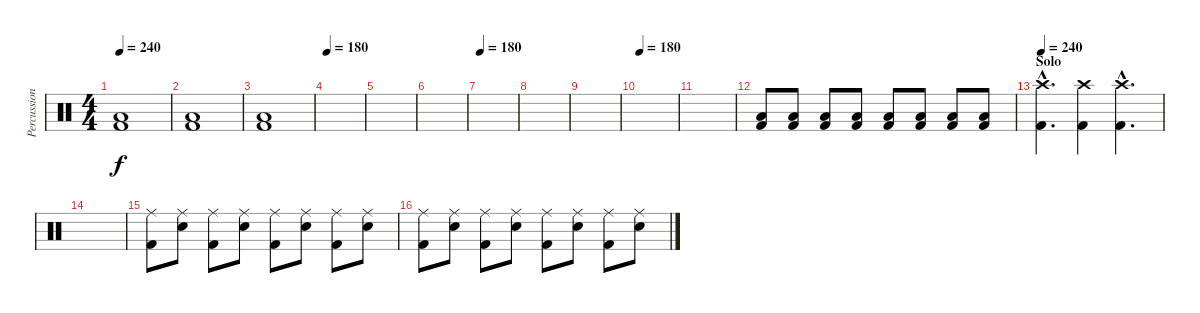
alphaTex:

\track ("Percussion" "Percussion") {instrument percussion}
\staff {score}
\articulation defaults
\ts (4 4)
\tempo 240
\clef neutral
\ks c
("Kick (hit) 2" "Low Floor Tom (hit)").1{dy f} |
("Kick (hit) 2" "Low Floor Tom (hit)").1 |
("Kick (hit) 2" "Low Floor Tom (hit)").1 |
\tempo 180
|
|
|
\tempo 180
|
|
|
\tempo 180
|
|
("Kick (hit) 2" "Low Floor Tom (hit)").8 ("Kick (hit) 2" "Low Floor Tom (hit)").8 ("Kick (hit) 2" "Low Floor Tom (hit)").8 ("Kick (hit) 2" "Low Floor Tom (hit)").8 ("Kick (hit) 2" "Low Floor Tom (hit)").8 ("Kick (hit) 2" "Low Floor Tom (hit)").8 ("Kick (hit) 2" "Low Floor Tom (hit)").8 ("Kick (hit) 2" "Low Floor Tom (hit)").8 |
\section ("" "Solo")
\tempo 240
("Kick (hit) 2"{hac} "Crash high (hit)"{hac}).4{d} ("Kick (hit) 2" "Crash high (hit)").4 ("Kick (hit) 2"{hac} "Crash high (hit)"{hac}).4{d} |
|
\section ("" "")
("Kick (hit) 2" "Ride (middle)").8 ("Snare (hit) 2" "Ride (middle)").8 ("Kick (hit) 2" "Ride (middle)").8 ("Snare (hit) 2" "Ride (middle)").8 ("Kick (hit) 2" "Ride (middle)").8 ("Snare (hit) 2" "Ride (middle)").8 ("Kick (hit) 2" "Ride (middle)").8 ("Snare (hit) 2" "Ride (middle)").8 |
("Kick (hit) 2" "Ride (middle)").8 ("Snare (hit) 2" "Ride (middle)").8 ("Kick (hit) 2" "Ride (middle)").8 ("Snare (hit) 2" "Ride (middle)").8 ("Kick (hit) 2" "Ride (middle)").8 ("Snare (hit) 2" "Ride (middle)").8 ("Kick (hit) 2" "Ride (middle)").8 ("Snare (hit) 2" "Ride (middle)").8
